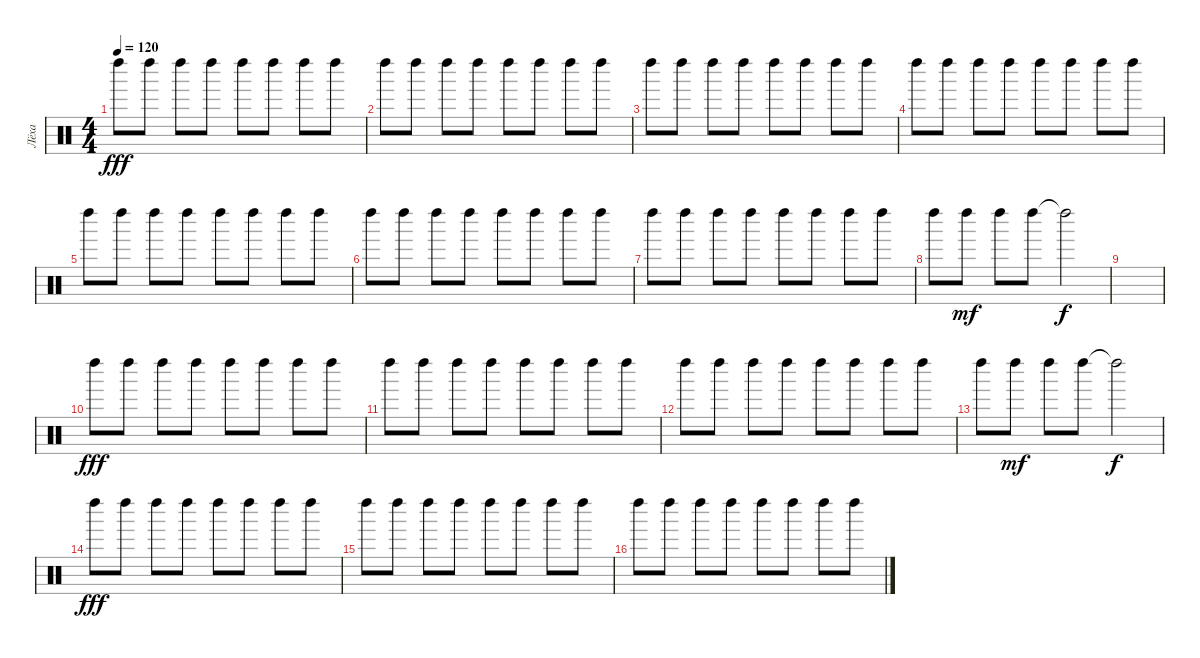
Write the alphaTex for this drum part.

\track ("Лёха" "Лёха") {instrument percussion}
\staff {score}
\articulation defaults
\ts (4 4)
\tempo 120
\clef neutral
\ks c "Left Maraca (hit)".8{dy fff} "Left Maraca (hit)".8 "Left Maraca (hit)".8 "Left Maraca (hit)".8 "Left Maraca (hit)".8 "Left Maraca (hit)".8 "Left Maraca (hit)".8 "Left Maraca (hit)".8
|
"Left Maraca (hit)".8 "Left Maraca (hit)".8 "Left Maraca (hit)".8 "Left Maraca (hit)".8 "Left Maraca (hit)".8 "Left Maraca (hit)".8 "Left Maraca (hit)".8 "Left Maraca (hit)".8 |
"Left Maraca (hit)".8 "Left Maraca (hit)".8 "Left Maraca (hit)".8 "Left Maraca (hit)".8 "Left Maraca (hit)".8 "Left Maraca (hit)".8 "Left Maraca (hit)".8 "Left Maraca (hit)".8 |
"Left Maraca (hit)".8 "Left Maraca (hit)".8 "Left Maraca (hit)".8 "Left Maraca (hit)".8 "Left Maraca (hit)".8 "Left Maraca (hit)".8 "Left Maraca (hit)".8 "Left Maraca (hit)".8 |
"Left Maraca (hit)".8 "Left Maraca (hit)".8 "Left Maraca (hit)".8 "Left Maraca (hit)".8 "Left Maraca (hit)".8 "Left Maraca (hit)".8 "Left Maraca (hit)".8 "Left Maraca (hit)".8 |
"Left Maraca (hit)".8 "Left Maraca (hit)".8 "Left Maraca (hit)".8 "Left Maraca (hit)".8 "Left Maraca (hit)".8 "Left Maraca (hit)".8 "Left Maraca (hit)".8 "Left Maraca (hit)".8 |
"Left Maraca (hit)".8 "Left Maraca (hit)".8 "Left Maraca (hit)".8 "Left Maraca (hit)".8 "Left Maraca (hit)".8 "Left Maraca (hit)".8 "Left Maraca (hit)".8 "Left Maraca (hit)".8 |
"Left Maraca (hit)".8 "Left Maraca (hit)".8{dy mf} "Left Maraca (hit)".8 "Left Maraca (hit)".8 "Left Maraca (hit)"{t}.2{dy f} |
|
"Left Maraca (hit)".8{dy fff} "Left Maraca (hit)".8 "Left Maraca (hit)".8 "Left Maraca (hit)".8 "Left Maraca (hit)".8 "Left Maraca (hit)".8 "Left Maraca (hit)".8 "Left Maraca (hit)".8 |
"Left Maraca (hit)".8 "Left Maraca (hit)".8 "Left Maraca (hit)".8 "Left Maraca (hit)".8 "Left Maraca (hit)".8 "Left Maraca (hit)".8 "Left Maraca (hit)".8 "Left Maraca (hit)".8 |
"Left Maraca (hit)".8 "Left Maraca (hit)".8 "Left Maraca (hit)".8 "Left Maraca (hit)".8 "Left Maraca (hit)".8 "Left Maraca (hit)".8 "Left Maraca (hit)".8 "Left Maraca (hit)".8 |
"Left Maraca (hit)".8 "Left Maraca (hit)".8{dy mf} "Left Maraca (hit)".8 "Left Maraca (hit)".8 "Left Maraca (hit)"{t}.2{dy f} |
"Left Maraca (hit)".8{dy fff} "Left Maraca (hit)".8 "Left Maraca (hit)".8 "Left Maraca (hit)".8 "Left Maraca (hit)".8 "Left Maraca (hit)".8 "Left Maraca (hit)".8 "Left Maraca (hit)".8 |
"Left Maraca (hit)".8 "Left Maraca (hit)".8 "Left Maraca (hit)".8 "Left Maraca (hit)".8 "Left Maraca (hit)".8 "Left Maraca (hit)".8 "Left Maraca (hit)".8 "Left Maraca (hit)".8 |
"Left Maraca (hit)".8 "Left Maraca (hit)".8 "Left Maraca (hit)".8 "Left Maraca (hit)".8 "Left Maraca (hit)".8 "Left Maraca (hit)".8 "Left Maraca (hit)".8 "Left Maraca (hit)".8
